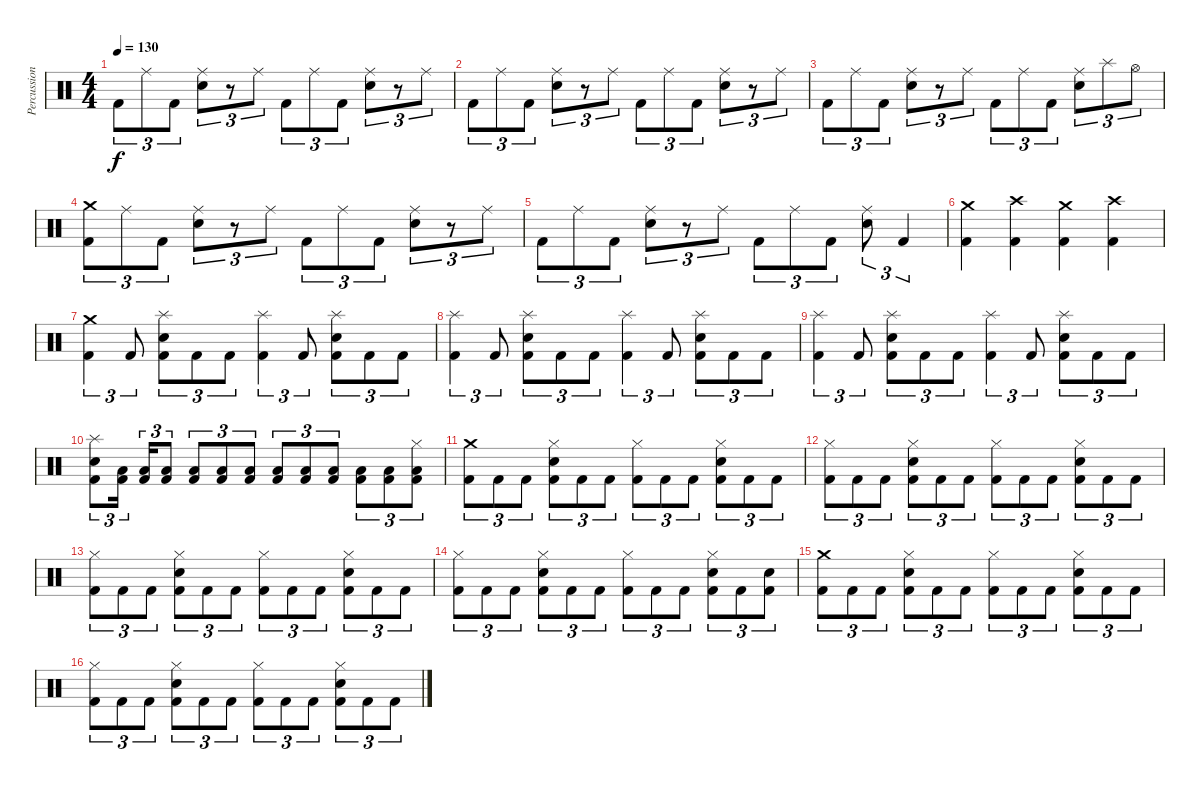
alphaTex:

\track ("Percussions" "Percussion") {instrument percussion}
\staff {score}
\articulation defaults
\ts (4 4)
\tempo 130
\clef neutral
\ks c "Kick (hit) 2".8{tu (3 2) dy f} "Ride (middle)".8{tu (3 2)} "Kick (hit) 2".8{tu (3 2)}
("Ride (middle)" "Electric Snare (hit)").8{tu (3 2)} r.8{tu (3 2)} "Ride (middle)".8{tu (3 2)} "Kick (hit) 2".8{tu (3 2)} "Ride (middle)".8{tu (3 2)} "Kick (hit) 2".8{tu (3 2)} ("Ride (middle)" "Electric Snare (hit)").8{tu (3 2)} r.8{tu (3 2)} "Ride (middle)".8{tu (3 2)} |
"Kick (hit) 2".8{tu (3 2)} "Ride (middle)".8{tu (3 2)} "Kick (hit) 2".8{tu (3 2)} ("Ride (middle)" "Electric Snare (hit)").8{tu (3 2)} r.8{tu (3 2)} "Ride (middle)".8{tu (3 2)} "Kick (hit) 2".8{tu (3 2)} "Ride (middle)".8{tu (3 2)} "Kick (hit) 2".8{tu (3 2)} ("Ride (middle)" "Electric Snare (hit)").8{tu (3 2)} r.8{tu (3 2)} "Ride (middle)".8{tu (3 2)} |
"Kick (hit) 2".8{tu (3 2)} "Ride (middle)".8{tu (3 2)} "Kick (hit) 2".8{tu (3 2)} ("Ride (middle)" "Electric Snare (hit)").8{tu (3 2)} r.8{tu (3 2)} "Ride (middle)".8{tu (3 2)} "Kick (hit) 2".8{tu (3 2)} "Ride (middle)".8{tu (3 2)} "Kick (hit) 2".8{tu (3 2)} ("Ride (middle)" "Electric Snare (hit)").8{tu (3 2)} "Splash (hit)".8{tu (3 2)} "Hi-Hat (open)".8{tu (3 2)} |
("Crash medium (hit)" "Kick (hit) 2").8{tu (3 2)} "Ride (middle)".8{tu (3 2)} "Kick (hit) 2".8{tu (3 2)} ("Ride (middle)" "Electric Snare (hit)").8{tu (3 2)} r.8{tu (3 2)} "Ride (middle)".8{tu (3 2)} "Kick (hit) 2".8{tu (3 2)} "Ride (middle)".8{tu (3 2)} "Kick (hit) 2".8{tu (3 2)} ("Ride (middle)" "Electric Snare (hit)").8{tu (3 2)} r.8{tu (3 2)} "Ride (middle)".8{tu (3 2)} |
"Kick (hit) 2".8{tu (3 2)} "Ride (middle)".8{tu (3 2)} "Kick (hit) 2".8{tu (3 2)} ("Ride (middle)" "Electric Snare (hit)").8{tu (3 2)} r.8{tu (3 2)} "Ride (middle)".8{tu (3 2)} "Kick (hit) 2".8{tu (3 2)} "Ride (middle)".8{tu (3 2)} "Kick (hit) 2".8{tu (3 2)} ("Ride (middle)" "Electric Snare (hit)").8{tu (3 2)} "Kick (hit) 2".4{tu (3 2)} |
("Crash medium (hit)" "Kick (hit) 2").4 ("Crash high (hit)" "Kick (hit) 2").4 ("Crash medium (hit)" "Kick (hit) 2").4 ("Crash high (hit)" "Kick (hit) 2").4 |
("Crash medium (hit)" "Kick (hit) 2").4{tu (3 2)} "Kick (hit) 2".8{tu (3 2)} ("Splash (hit)" "Electric Snare (hit)" "Kick (hit) 2").8{tu (3 2)} "Kick (hit) 2".8{tu (3 2)} "Kick (hit) 2".8{tu (3 2)} ("Splash (hit)" "Kick (hit) 2").4{tu (3 2)} "Kick (hit) 2".8{tu (3 2)} ("Splash (hit)" "Electric Snare (hit)" "Kick (hit) 2").8{tu (3 2)} "Kick (hit) 2".8{tu (3 2)} "Kick (hit) 2".8{tu (3 2)} |
("Splash (hit)" "Kick (hit) 2").4{tu (3 2)} "Kick (hit) 2".8{tu (3 2)} ("Splash (hit)" "Electric Snare (hit)" "Kick (hit) 2").8{tu (3 2)} "Kick (hit) 2".8{tu (3 2)} "Kick (hit) 2".8{tu (3 2)} ("Splash (hit)" "Kick (hit) 2").4{tu (3 2)} "Kick (hit) 2".8{tu (3 2)} ("Splash (hit)" "Electric Snare (hit)" "Kick (hit) 2").8{tu (3 2)} "Kick (hit) 2".8{tu (3 2)} "Kick (hit) 2".8{tu (3 2)} |
("Splash (hit)" "Kick (hit) 2").4{tu (3 2)} "Kick (hit) 2".8{tu (3 2)} ("Splash (hit)" "Electric Snare (hit)" "Kick (hit) 2").8{tu (3 2)} "Kick (hit) 2".8{tu (3 2)} "Kick (hit) 2".8{tu (3 2)} ("Splash (hit)" "Kick (hit) 2").4{tu (3 2)} "Kick (hit) 2".8{tu (3 2)} ("Splash (hit)" "Electric Snare (hit)" "Kick (hit) 2").8{tu (3 2)} "Kick (hit) 2".8{tu (3 2)} "Kick (hit) 2".8{tu (3 2)} |
("Splash (hit)" "Electric Snare (hit)" "Kick (hit) 2").8{tu (3 2)} ("Low Tom (hit)" "Kick (hit) 2").16{tu (3 2) beam splitsecondary} ("Low Tom (hit)" "Kick (hit) 2").16{tu (3 2)} ("Low Tom (hit)" "Kick (hit) 2").8{tu (3 2)} ("Low Tom (hit)" "Kick (hit) 2").8{tu (3 2)} ("Low Tom (hit)" "Kick (hit) 2").8{tu (3 2)} ("Low Tom (hit)" "Kick (hit) 2").8{tu (3 2)} ("Low Tom (hit)" "Kick (hit) 2").8{tu (3 2)} ("Low Tom (hit)" "Kick (hit) 2").8{tu (3 2)} ("Low Tom (hit)" "Kick (hit) 2").8{tu (3 2)} ("Low Tom (hit)" "Kick (hit) 2").8{tu (3 2)} ("Low Tom (hit)" "Kick (hit) 2").8{tu (3 2)} ("Low Tom (hit)" "Hi-Hat (closed)" "Kick (hit) 2").8{tu (3 2)} |
("Crash medium (hit)" "Kick (hit) 2").8{tu (3 2)} "Kick (hit) 2".8{tu (3 2)} "Kick (hit) 2".8{tu (3 2)} ("Hi-Hat (closed)" "Electric Snare (hit)" "Kick (hit) 2").8{tu (3 2)} "Kick (hit) 2".8{tu (3 2)} "Kick (hit) 2".8{tu (3 2)} ("Hi-Hat (closed)" "Kick (hit) 2").8{tu (3 2)} "Kick (hit) 2".8{tu (3 2)} "Kick (hit) 2".8{tu (3 2)} ("Hi-Hat (closed)" "Electric Snare (hit)" "Kick (hit) 2").8{tu (3 2)} "Kick (hit) 2".8{tu (3 2)} "Kick (hit) 2".8{tu (3 2)} |
("Hi-Hat (closed)" "Kick (hit) 2").8{tu (3 2)} "Kick (hit) 2".8{tu (3 2)} "Kick (hit) 2".8{tu (3 2)} ("Hi-Hat (closed)" "Electric Snare (hit)" "Kick (hit) 2").8{tu (3 2)} "Kick (hit) 2".8{tu (3 2)} "Kick (hit) 2".8{tu (3 2)} ("Hi-Hat (closed)" "Kick (hit) 2").8{tu (3 2)} "Kick (hit) 2".8{tu (3 2)} "Kick (hit) 2".8{tu (3 2)} ("Hi-Hat (closed)" "Electric Snare (hit)" "Kick (hit) 2").8{tu (3 2)} "Kick (hit) 2".8{tu (3 2)} "Kick (hit) 2".8{tu (3 2)} |
("Hi-Hat (closed)" "Kick (hit) 2").8{tu (3 2)} "Kick (hit) 2".8{tu (3 2)} "Kick (hit) 2".8{tu (3 2)} ("Hi-Hat (closed)" "Electric Snare (hit)" "Kick (hit) 2").8{tu (3 2)} "Kick (hit) 2".8{tu (3 2)} "Kick (hit) 2".8{tu (3 2)} ("Hi-Hat (closed)" "Kick (hit) 2").8{tu (3 2)} "Kick (hit) 2".8{tu (3 2)} "Kick (hit) 2".8{tu (3 2)} ("Hi-Hat (closed)" "Electric Snare (hit)" "Kick (hit) 2").8{tu (3 2)} "Kick (hit) 2".8{tu (3 2)} "Kick (hit) 2".8{tu (3 2)} |
("Hi-Hat (closed)" "Kick (hit) 2").8{tu (3 2)} "Kick (hit) 2".8{tu (3 2)} "Kick (hit) 2".8{tu (3 2)} ("Hi-Hat (closed)" "Electric Snare (hit)" "Kick (hit) 2").8{tu (3 2)} "Kick (hit) 2".8{tu (3 2)} "Kick (hit) 2".8{tu (3 2)} ("Hi-Hat (closed)" "Kick (hit) 2").8{tu (3 2)} "Kick (hit) 2".8{tu (3 2)} "Kick (hit) 2".8{tu (3 2)} ("Hi-Hat (closed)" "Electric Snare (hit)" "Kick (hit) 2").8{tu (3 2)} "Kick (hit) 2".8{tu (3 2)} ("Electric Snare (hit)" "Kick (hit) 2").8{tu (3 2)} |
("Crash medium (hit)" "Kick (hit) 2").8{tu (3 2)} "Kick (hit) 2".8{tu (3 2)} "Kick (hit) 2".8{tu (3 2)} ("Hi-Hat (closed)" "Electric Snare (hit)" "Kick (hit) 2").8{tu (3 2)} "Kick (hit) 2".8{tu (3 2)} "Kick (hit) 2".8{tu (3 2)} ("Hi-Hat (closed)" "Kick (hit) 2").8{tu (3 2)} "Kick (hit) 2".8{tu (3 2)} "Kick (hit) 2".8{tu (3 2)} ("Hi-Hat (closed)" "Electric Snare (hit)" "Kick (hit) 2").8{tu (3 2)} "Kick (hit) 2".8{tu (3 2)} "Kick (hit) 2".8{tu (3 2)} |
("Hi-Hat (closed)" "Kick (hit) 2").8{tu (3 2)} "Kick (hit) 2".8{tu (3 2)} "Kick (hit) 2".8{tu (3 2)} ("Hi-Hat (closed)" "Electric Snare (hit)" "Kick (hit) 2").8{tu (3 2)} "Kick (hit) 2".8{tu (3 2)} "Kick (hit) 2".8{tu (3 2)} ("Hi-Hat (closed)" "Kick (hit) 2").8{tu (3 2)} "Kick (hit) 2".8{tu (3 2)} "Kick (hit) 2".8{tu (3 2)} ("Hi-Hat (closed)" "Electric Snare (hit)" "Kick (hit) 2").8{tu (3 2)} "Kick (hit) 2".8{tu (3 2)} "Kick (hit) 2".8{tu (3 2)}
